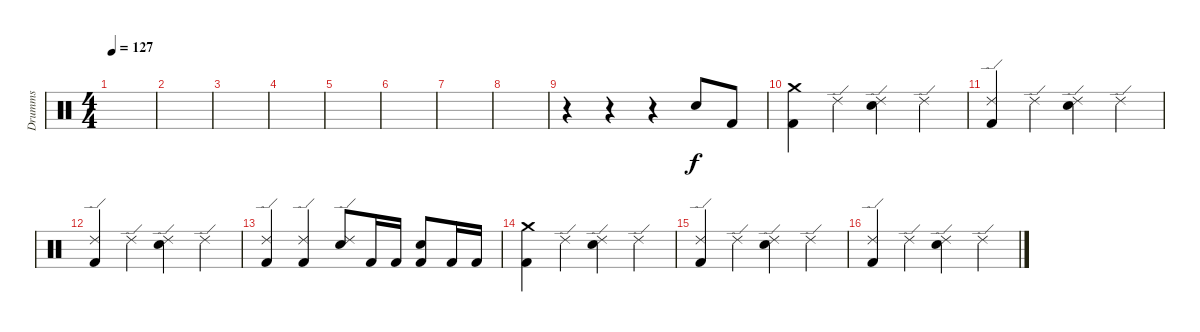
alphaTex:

\track ("Drumms" "Drumms") {instrument percussion}
\staff {score}
\articulation defaults
\ts (4 4)
\tempo 127
\clef neutral
\ks c
|
|
|
|
|
|
|
|
r.4 r.4 r.4 "Snare (hit) 2".8 "Kick (hit) 2".8 |
("Kick (hit) 2" "Crash medium (hit)").4 "Ride (edge) 2".4 ("Snare (hit) 2" "Ride (edge) 2").4 "Ride (edge) 2".4 |
("Kick (hit) 2" "Ride (edge) 2").4 "Ride (edge) 2".4 ("Snare (hit) 2" "Ride (edge) 2").4 "Ride (edge) 2".4 |
("Kick (hit) 2" "Ride (edge) 2").4 "Ride (edge) 2".4 ("Snare (hit) 2" "Ride (edge) 2").4 "Ride (edge) 2".4 |
("Kick (hit) 2" "Ride (edge) 2").4 ("Kick (hit) 2" "Ride (edge) 2").4 ("Snare (hit) 2" "Ride (edge) 2").8 "Kick (hit) 2".16 "Kick (hit) 2".16 ("Kick (hit) 2" "Snare (hit) 2").8 "Kick (hit) 2".16 "Kick (hit) 2".16 |
("Kick (hit) 2" "Crash medium (hit)").4 "Ride (edge) 2".4 ("Snare (hit) 2" "Ride (edge) 2").4 "Ride (edge) 2".4 |
("Kick (hit) 2" "Ride (edge) 2").4 "Ride (edge) 2".4 ("Snare (hit) 2" "Ride (edge) 2").4 "Ride (edge) 2".4 |
("Kick (hit) 2" "Ride (edge) 2").4 "Ride (edge) 2".4 ("Snare (hit) 2" "Ride (edge) 2").4 "Ride (edge) 2".4
